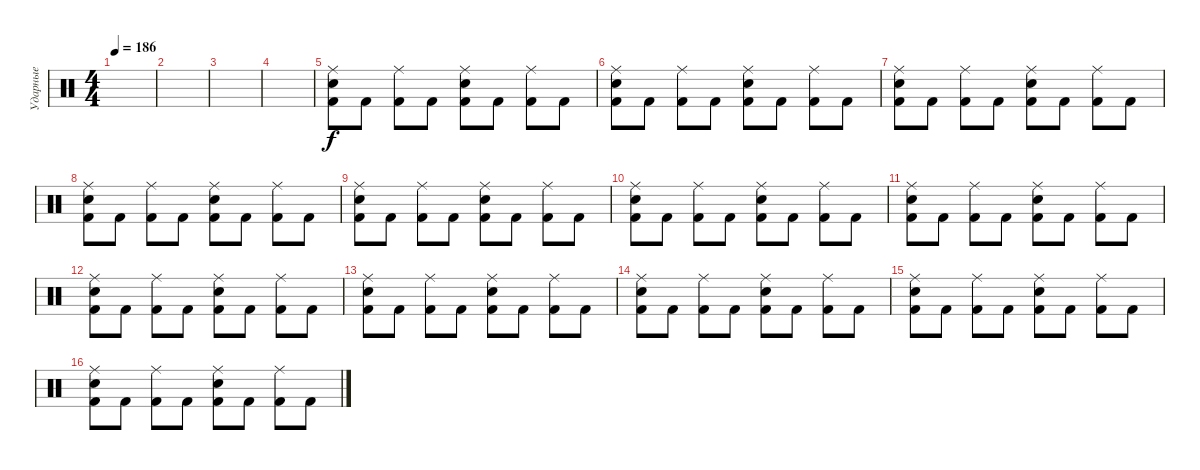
\track ("Ударные" "Ударные") {instrument percussion}
\staff {score}
\articulation defaults
\ts (4 4)
\tempo 186
\clef neutral
\ks c
|
|
|
|
("Ride (middle)" "Snare (hit) 2" "Kick (hit) 2").8 "Kick (hit) 2".8 ("Ride (middle)" "Kick (hit) 2").8 "Kick (hit) 2".8 ("Ride (middle)" "Snare (hit) 2" "Kick (hit) 2").8 "Kick (hit) 2".8 ("Ride (middle)" "Kick (hit) 2").8 "Kick (hit) 2".8 |
("Ride (middle)" "Snare (hit) 2" "Kick (hit) 2").8 "Kick (hit) 2".8 ("Ride (middle)" "Kick (hit) 2").8 "Kick (hit) 2".8 ("Ride (middle)" "Snare (hit) 2" "Kick (hit) 2").8 "Kick (hit) 2".8 ("Ride (middle)" "Kick (hit) 2").8 "Kick (hit) 2".8 |
("Ride (middle)" "Snare (hit) 2" "Kick (hit) 2").8 "Kick (hit) 2".8 ("Ride (middle)" "Kick (hit) 2").8 "Kick (hit) 2".8 ("Ride (middle)" "Snare (hit) 2" "Kick (hit) 2").8 "Kick (hit) 2".8 ("Ride (middle)" "Kick (hit) 2").8 "Kick (hit) 2".8 |
("Ride (middle)" "Snare (hit) 2" "Kick (hit) 2").8 "Kick (hit) 2".8 ("Ride (middle)" "Kick (hit) 2").8 "Kick (hit) 2".8 ("Ride (middle)" "Snare (hit) 2" "Kick (hit) 2").8 "Kick (hit) 2".8 ("Ride (middle)" "Kick (hit) 2").8 "Kick (hit) 2".8 |
("Ride (middle)" "Snare (hit) 2" "Kick (hit) 2").8 "Kick (hit) 2".8 ("Ride (middle)" "Kick (hit) 2").8 "Kick (hit) 2".8 ("Ride (middle)" "Snare (hit) 2" "Kick (hit) 2").8 "Kick (hit) 2".8 ("Ride (middle)" "Kick (hit) 2").8 "Kick (hit) 2".8 |
("Ride (middle)" "Snare (hit) 2" "Kick (hit) 2").8 "Kick (hit) 2".8 ("Ride (middle)" "Kick (hit) 2").8 "Kick (hit) 2".8 ("Ride (middle)" "Snare (hit) 2" "Kick (hit) 2").8 "Kick (hit) 2".8 ("Ride (middle)" "Kick (hit) 2").8 "Kick (hit) 2".8 |
("Ride (middle)" "Snare (hit) 2" "Kick (hit) 2").8 "Kick (hit) 2".8 ("Ride (middle)" "Kick (hit) 2").8 "Kick (hit) 2".8 ("Ride (middle)" "Snare (hit) 2" "Kick (hit) 2").8 "Kick (hit) 2".8 ("Ride (middle)" "Kick (hit) 2").8 "Kick (hit) 2".8 |
("Ride (middle)" "Snare (hit) 2" "Kick (hit) 2").8 "Kick (hit) 2".8 ("Ride (middle)" "Kick (hit) 2").8 "Kick (hit) 2".8 ("Ride (middle)" "Snare (hit) 2" "Kick (hit) 2").8 "Kick (hit) 2".8 ("Ride (middle)" "Kick (hit) 2").8 "Kick (hit) 2".8 |
("Ride (middle)" "Snare (hit) 2" "Kick (hit) 2").8 "Kick (hit) 2".8 ("Ride (middle)" "Kick (hit) 2").8 "Kick (hit) 2".8 ("Ride (middle)" "Snare (hit) 2" "Kick (hit) 2").8 "Kick (hit) 2".8 ("Ride (middle)" "Kick (hit) 2").8 "Kick (hit) 2".8 |
("Ride (middle)" "Snare (hit) 2" "Kick (hit) 2").8 "Kick (hit) 2".8 ("Ride (middle)" "Kick (hit) 2").8 "Kick (hit) 2".8 ("Ride (middle)" "Snare (hit) 2" "Kick (hit) 2").8 "Kick (hit) 2".8 ("Ride (middle)" "Kick (hit) 2").8 "Kick (hit) 2".8 |
("Ride (middle)" "Snare (hit) 2" "Kick (hit) 2").8 "Kick (hit) 2".8 ("Ride (middle)" "Kick (hit) 2").8 "Kick (hit) 2".8 ("Ride (middle)" "Snare (hit) 2" "Kick (hit) 2").8 "Kick (hit) 2".8 ("Ride (middle)" "Kick (hit) 2").8 "Kick (hit) 2".8 |
("Ride (middle)" "Snare (hit) 2" "Kick (hit) 2").8 "Kick (hit) 2".8 ("Ride (middle)" "Kick (hit) 2").8 "Kick (hit) 2".8 ("Ride (middle)" "Snare (hit) 2" "Kick (hit) 2").8 "Kick (hit) 2".8 ("Ride (middle)" "Kick (hit) 2").8 "Kick (hit) 2".8
